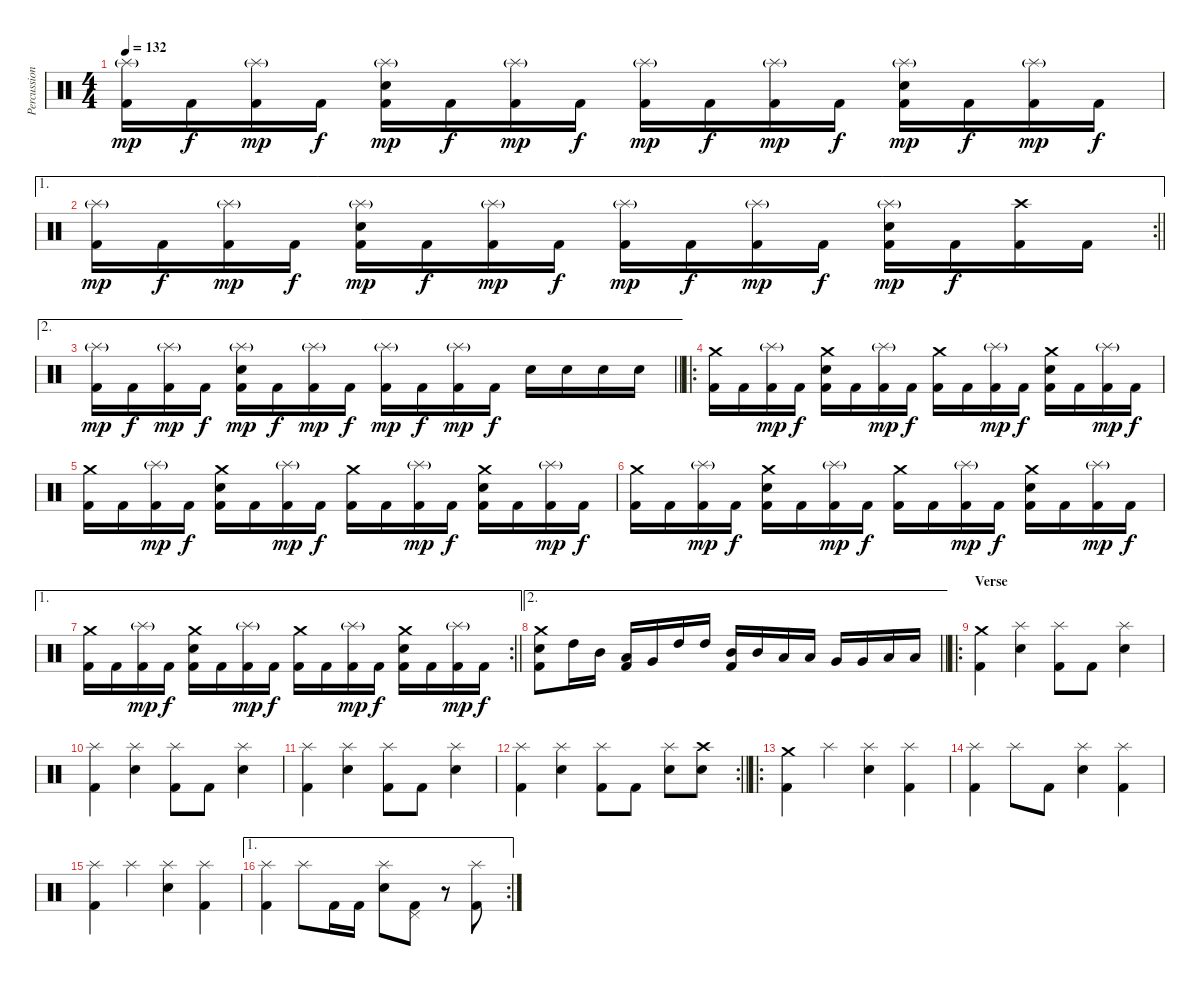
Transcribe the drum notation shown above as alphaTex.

\track ("Percussion" "Percussion") {instrument percussion}
\staff {score}
\articulation defaults
\ts (4 4)
\tempo 132
\clef neutral
\ks c
("Kick (hit) 2" "Splash (hit)"{g}).16{dy mp} "Kick (hit) 2".16{dy f} ("Kick (hit) 2" "Splash (hit)"{g}).16{dy mp} "Kick (hit) 2".16{dy f} ("Kick (hit) 2" "Snare (hit) 2" "Splash (hit)"{g}).16{dy mp} "Kick (hit) 2".16{dy f} ("Kick (hit) 2" "Splash (hit)"{g}).16{dy mp} "Kick (hit) 2".16{dy f} ("Kick (hit) 2" "Splash (hit)"{g}).16{dy mp} "Kick (hit) 2".16{dy f} ("Kick (hit) 2" "Splash (hit)"{g}).16{dy mp} "Kick (hit) 2".16{dy f} ("Kick (hit) 2" "Snare (hit) 2" "Splash (hit)"{g}).16{dy mp} "Kick (hit) 2".16{dy f} ("Kick (hit) 2" "Splash (hit)"{g}).16{dy mp} "Kick (hit) 2".16{dy f} |
\ae 1
\rc 2
\barLineRight lightlight
("Kick (hit) 2" "Splash (hit)"{g}).16{dy mp} "Kick (hit) 2".16{dy f} ("Kick (hit) 2" "Splash (hit)"{g}).16{dy mp} "Kick (hit) 2".16{dy f} ("Kick (hit) 2" "Snare (hit) 2" "Splash (hit)"{g}).16{dy mp} "Kick (hit) 2".16{dy f} ("Kick (hit) 2" "Splash (hit)"{g}).16{dy mp} "Kick (hit) 2".16{dy f} ("Kick (hit) 2" "Splash (hit)"{g}).16{dy mp} "Kick (hit) 2".16{dy f} ("Kick (hit) 2" "Splash (hit)"{g}).16{dy mp} "Kick (hit) 2".16{dy f} ("Kick (hit) 2" "Snare (hit) 2" "Splash (hit)"{g}).16{dy mp} "Kick (hit) 2".16{dy f} ("Kick (hit) 2" "Crash high (hit)").16 "Kick (hit) 2".16 |
\ae 2
\barLineRight lightlight
("Kick (hit) 2" "Splash (hit)"{g}).16{dy mp} "Kick (hit) 2".16{dy f} ("Kick (hit) 2" "Splash (hit)"{g}).16{dy mp} "Kick (hit) 2".16{dy f} ("Kick (hit) 2" "Snare (hit) 2" "Splash (hit)"{g}).16{dy mp} "Kick (hit) 2".16{dy f} ("Kick (hit) 2" "Splash (hit)"{g}).16{dy mp} "Kick (hit) 2".16{dy f} ("Kick (hit) 2" "Splash (hit)"{g}).16{dy mp} "Kick (hit) 2".16{dy f} ("Kick (hit) 2" "Splash (hit)"{g}).16{dy mp} "Kick (hit) 2".16{dy f} "Snare (hit) 2".16 "Snare (hit) 2".16 "Snare (hit) 2".16 "Snare (hit) 2".16 |
\ro
\section ("" "")
("Kick (hit) 2" "Crash medium (hit)").16 "Kick (hit) 2".16 ("Kick (hit) 2" "Splash (hit)"{g}).16{dy mp} "Kick (hit) 2".16{dy f} ("Kick (hit) 2" "Snare (hit) 2" "Crash medium (hit)").16 "Kick (hit) 2".16 ("Kick (hit) 2" "Splash (hit)"{g}).16{dy mp} "Kick (hit) 2".16{dy f} ("Kick (hit) 2" "Crash medium (hit)").16 "Kick (hit) 2".16 ("Kick (hit) 2" "Splash (hit)"{g}).16{dy mp} "Kick (hit) 2".16{dy f} ("Kick (hit) 2" "Snare (hit) 2" "Crash medium (hit)").16 "Kick (hit) 2".16 ("Kick (hit) 2" "Splash (hit)"{g}).16{dy mp} "Kick (hit) 2".16{dy f} |
("Kick (hit) 2" "Crash medium (hit)").16 "Kick (hit) 2".16 ("Kick (hit) 2" "Splash (hit)"{g}).16{dy mp} "Kick (hit) 2".16{dy f} ("Kick (hit) 2" "Snare (hit) 2" "Crash medium (hit)").16 "Kick (hit) 2".16 ("Kick (hit) 2" "Splash (hit)"{g}).16{dy mp} "Kick (hit) 2".16{dy f} ("Kick (hit) 2" "Crash medium (hit)").16 "Kick (hit) 2".16 ("Kick (hit) 2" "Splash (hit)"{g}).16{dy mp} "Kick (hit) 2".16{dy f} ("Kick (hit) 2" "Snare (hit) 2" "Crash medium (hit)").16 "Kick (hit) 2".16 ("Kick (hit) 2" "Splash (hit)"{g}).16{dy mp} "Kick (hit) 2".16{dy f} |
("Kick (hit) 2" "Crash medium (hit)").16 "Kick (hit) 2".16 ("Kick (hit) 2" "Splash (hit)"{g}).16{dy mp} "Kick (hit) 2".16{dy f} ("Kick (hit) 2" "Snare (hit) 2" "Crash medium (hit)").16 "Kick (hit) 2".16 ("Kick (hit) 2" "Splash (hit)"{g}).16{dy mp} "Kick (hit) 2".16{dy f} ("Kick (hit) 2" "Crash medium (hit)").16 "Kick (hit) 2".16 ("Kick (hit) 2" "Splash (hit)"{g}).16{dy mp} "Kick (hit) 2".16{dy f} ("Kick (hit) 2" "Snare (hit) 2" "Crash medium (hit)").16 "Kick (hit) 2".16 ("Kick (hit) 2" "Splash (hit)"{g}).16{dy mp} "Kick (hit) 2".16{dy f} |
\ae 1
\rc 2
\barLineRight lightlight
("Kick (hit) 2" "Crash medium (hit)").16 "Kick (hit) 2".16 ("Kick (hit) 2" "Splash (hit)"{g}).16{dy mp} "Kick (hit) 2".16{dy f} ("Kick (hit) 2" "Snare (hit) 2" "Crash medium (hit)").16 "Kick (hit) 2".16 ("Kick (hit) 2" "Splash (hit)"{g}).16{dy mp} "Kick (hit) 2".16{dy f} ("Kick (hit) 2" "Crash medium (hit)").16 "Kick (hit) 2".16 ("Kick (hit) 2" "Splash (hit)"{g}).16{dy mp} "Kick (hit) 2".16{dy f} ("Kick (hit) 2" "Snare (hit) 2" "Crash medium (hit)").16 "Kick (hit) 2".16 ("Kick (hit) 2" "Splash (hit)"{g}).16{dy mp} "Kick (hit) 2".16{dy f} |
\ae 2
\barLineRight lightlight
("Kick (hit) 2" "Snare (hit) 2" "Crash medium (hit)").8 "High Tom (hit)".16 "Mid Tom (hit)".16 ("Kick (hit) 2" "Low Tom (hit)").16 "Very Low Tom (hit)".16 "High Tom (hit)".16 "High Tom (hit)".16 ("Kick (hit) 2" "Mid Tom (hit)").16 "Mid Tom (hit)".16 "Low Tom (hit)".16 "Low Tom (hit)".16 "Very Low Tom (hit)".16 "Very Low Tom (hit)".16 "Low Floor Tom (hit)".16 "Low Floor Tom (hit)".16 |
\ro
\section ("" "Verse")
("Kick (hit) 2" "Crash medium (hit)").4 ("Snare (hit) 2" "Splash (hit)").4 ("Kick (hit) 2" "Splash (hit)").8 "Kick (hit) 2".8 ("Snare (hit) 2" "Splash (hit)").4 |
("Kick (hit) 2" "Splash (hit)").4 ("Snare (hit) 2" "Splash (hit)").4 ("Kick (hit) 2" "Splash (hit)").8 "Kick (hit) 2".8 ("Snare (hit) 2" "Splash (hit)").4 |
("Kick (hit) 2" "Splash (hit)").4 ("Snare (hit) 2" "Splash (hit)").4 ("Kick (hit) 2" "Splash (hit)").8 "Kick (hit) 2".8 ("Snare (hit) 2" "Splash (hit)").4 |
\rc 2
\barLineRight lightlight
("Kick (hit) 2" "Splash (hit)").4 ("Snare (hit) 2" "Splash (hit)").4 ("Kick (hit) 2" "Splash (hit)").8 "Kick (hit) 2".8 ("Snare (hit) 2" "Splash (hit)").8 ("Snare (hit) 2" "Crash high (hit)").8 |
\ro
\section ("" "")
("Kick (hit) 2" "Crash medium (hit)").4 "Splash (hit)".4 ("Snare (hit) 2" "Splash (hit)").4 ("Kick (hit) 2" "Splash (hit)").4 |
("Kick (hit) 2" "Splash (hit)").4 "Splash (hit)".8 "Kick (hit) 2".8 ("Snare (hit) 2" "Splash (hit)").4 ("Kick (hit) 2" "Splash (hit)").4 |
("Kick (hit) 2" "Splash (hit)").4 "Splash (hit)".4 ("Snare (hit) 2" "Splash (hit)").4 ("Kick (hit) 2" "Splash (hit)").4 |
\ae 1
\rc 2
("Kick (hit) 2" "Splash (hit)").4 "Splash (hit)".8 "Kick (hit) 2".16 "Kick (hit) 2".16 ("Snare (hit) 2" "Splash (hit)").8 ("Kick (hit) 2" "Pedal Hi-Hat (hit)").8 r.8 ("Kick (hit) 2" "Splash (hit)").8
